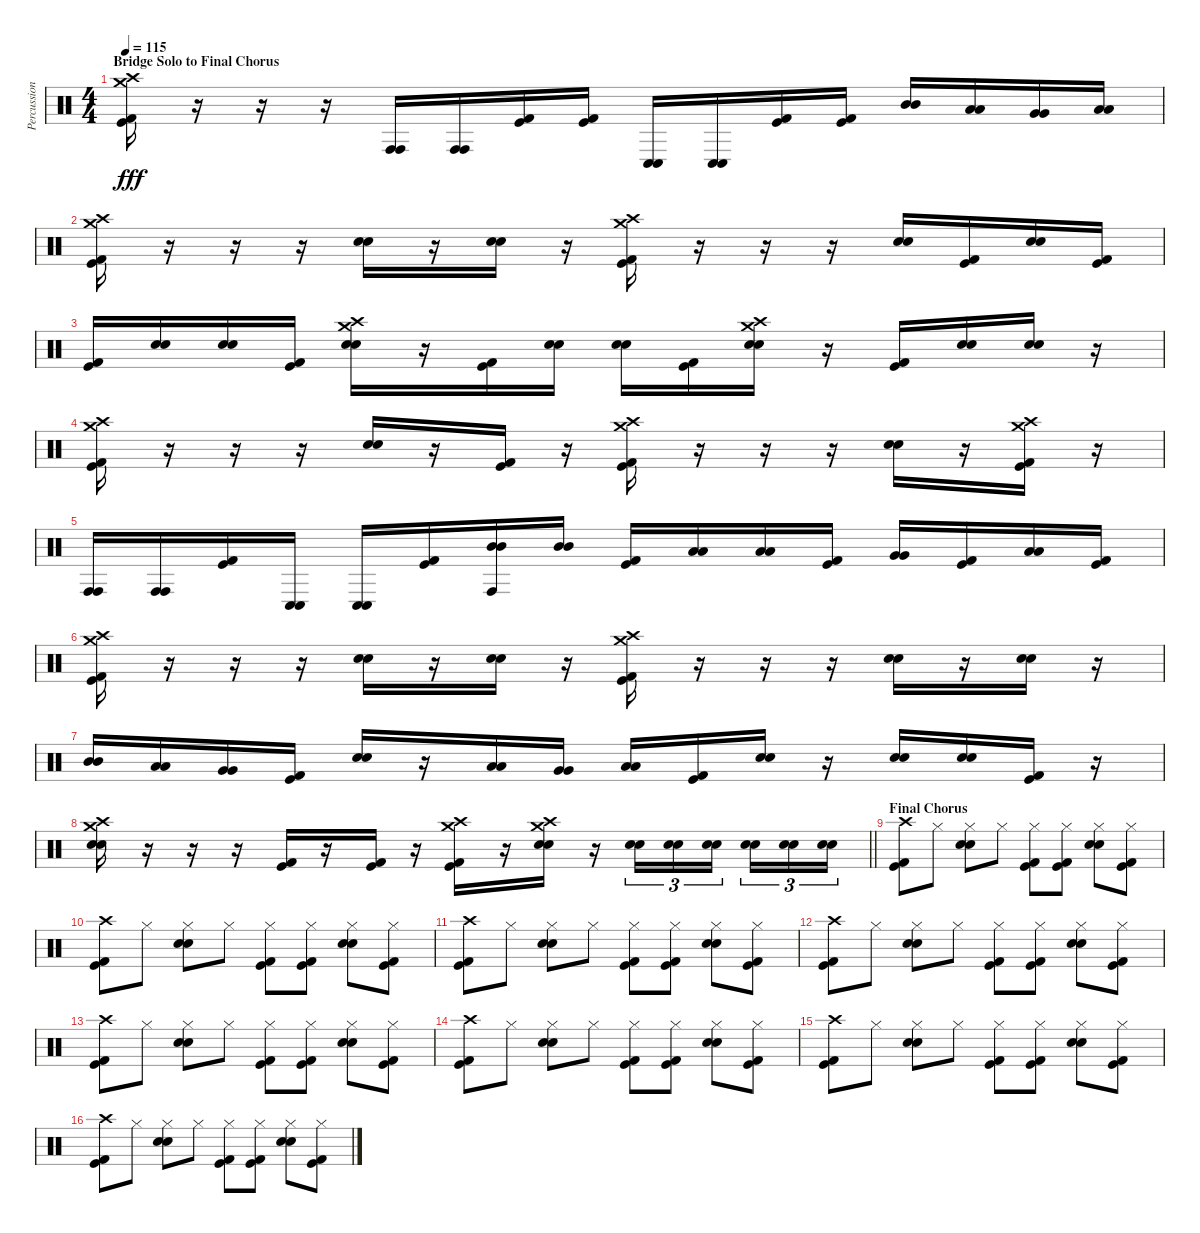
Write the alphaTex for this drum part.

\track ("Percussion" "Percussion") {instrument percussion}
\staff {score}
\articulation defaults
\ts (4 4)
\section ("" "Bridge Solo to Final Chorus")
\tempo 115
\clef neutral
\ks c
("Crash medium (hit)" "Crash high (hit)" "Kick (hit) 2" "Kick (hit)").16{dy fff} r.16 r.16 r.16 ("Conga high (hit)" "Conga high (hit)").16 ("Conga high (hit)" "Conga high (hit)").16 ("Kick (hit) 2" "Kick (hit)").16 ("Kick (hit) 2" "Kick (hit)").16 ("Conga low (hit)" "Conga low (hit)").16 ("Conga low (hit)" "Conga low (hit)").16 ("Kick (hit) 2" "Kick (hit)").16 ("Kick (hit) 2" "Kick (hit)").16 ("Mid Tom (hit)" "Mid Tom (hit)").16 ("Low Tom (hit)" "Low Tom (hit)").16 ("Very Low Tom (hit)" "Very Low Tom (hit)").16 ("Low Floor Tom (hit)" "Low Floor Tom (hit)").16 |
("Crash medium (hit)" "Crash high (hit)" "Kick (hit) 2" "Kick (hit)").16 r.16 r.16 r.16 ("Electric Snare (hit)" "Snare (hit) 2").16 r.16 ("Electric Snare (hit)" "Snare (hit) 2").16 r.16 ("Crash medium (hit)" "Crash high (hit)" "Kick (hit) 2" "Kick (hit)").16 r.16 r.16 r.16 ("Electric Snare (hit)" "Snare (hit) 2").16 ("Kick (hit) 2" "Kick (hit)").16 ("Electric Snare (hit)" "Snare (hit) 2").16 ("Kick (hit) 2" "Kick (hit)").16 |
("Kick (hit) 2" "Kick (hit)").16 ("Electric Snare (hit)" "Snare (hit) 2").16 ("Electric Snare (hit)" "Snare (hit) 2").16 ("Kick (hit) 2" "Kick (hit)").16 ("Crash medium (hit)" "Electric Snare (hit)" "Snare (hit) 2" "Crash high (hit)").16 r.16 ("Kick (hit) 2" "Kick (hit)").16 ("Electric Snare (hit)" "Snare (hit) 2").16 ("Electric Snare (hit)" "Snare (hit) 2").16 ("Kick (hit) 2" "Kick (hit)").16 ("Crash medium (hit)" "Electric Snare (hit)" "Snare (hit) 2" "Crash high (hit)").16 r.16 ("Kick (hit) 2" "Kick (hit)").16 ("Electric Snare (hit)" "Snare (hit) 2").16 ("Electric Snare (hit)" "Snare (hit) 2").16 r.16 |
("Crash medium (hit)" "Crash high (hit)" "Kick (hit) 2" "Kick (hit)").16 r.16 r.16 r.16 ("Electric Snare (hit)" "Snare (hit) 2").16 r.16 ("Kick (hit) 2" "Kick (hit)").16 r.16 ("Crash medium (hit)" "Crash high (hit)" "Kick (hit) 2" "Kick (hit)").16 r.16 r.16 r.16 ("Electric Snare (hit)" "Snare (hit) 2").16 r.16 ("Crash medium (hit)" "Crash high (hit)" "Kick (hit) 2" "Kick (hit)").16 r.16 |
("Conga high (hit)" "Conga high (hit)").16 ("Conga high (hit)" "Conga high (hit)").16 ("Kick (hit) 2" "Kick (hit)").16 ("Conga low (hit)" "Conga low (hit)").16 ("Conga low (hit)" "Conga low (hit)").16 ("Kick (hit) 2" "Kick (hit)").16 ("Conga high (hit)" "Mid Tom (hit)" "Mid Tom (hit)").16 ("Mid Tom (hit)" "Mid Tom (hit)").16 ("Kick (hit) 2" "Kick (hit)").16 ("Low Tom (hit)" "Low Tom (hit)").16 ("Low Tom (hit)" "Low Tom (hit)").16 ("Kick (hit) 2" "Kick (hit)").16 ("Very Low Tom (hit)" "Very Low Tom (hit)").16 ("Kick (hit) 2" "Kick (hit)").16 ("Low Floor Tom (hit)" "Low Floor Tom (hit)").16 ("Kick (hit) 2" "Kick (hit)").16 |
("Crash medium (hit)" "Crash high (hit)" "Kick (hit) 2" "Kick (hit)").16 r.16 r.16 r.16 ("Electric Snare (hit)" "Snare (hit) 2").16 r.16 ("Electric Snare (hit)" "Snare (hit) 2").16 r.16 ("Crash medium (hit)" "Crash high (hit)" "Kick (hit) 2" "Kick (hit)").16 r.16 r.16 r.16 ("Electric Snare (hit)" "Snare (hit) 2").16 r.16 ("Electric Snare (hit)" "Snare (hit) 2").16 r.16 |
("Mid Tom (hit)" "Mid Tom (hit)").16 ("Low Tom (hit)" "Low Tom (hit)").16 ("Very Low Tom (hit)" "Very Low Tom (hit)").16 ("Kick (hit) 2" "Kick (hit)").16 ("Electric Snare (hit)" "Snare (hit) 2").16 r.16 ("Low Tom (hit)" "Low Tom (hit)").16 ("Very Low Tom (hit)" "Very Low Tom (hit)").16 ("Low Floor Tom (hit)" "Low Floor Tom (hit)").16 ("Kick (hit) 2" "Kick (hit)").16 ("Electric Snare (hit)" "Snare (hit) 2").16 r.16 ("Electric Snare (hit)" "Snare (hit) 2").16 ("Electric Snare (hit)" "Snare (hit) 2").16 ("Kick (hit) 2" "Kick (hit)").16 r.16 |
\barLineRight lightlight
("Crash medium (hit)" "Electric Snare (hit)" "Snare (hit) 2" "Crash high (hit)").16 r.16 r.16 r.16 ("Kick (hit) 2" "Kick (hit)").16 r.16 ("Kick (hit) 2" "Kick (hit)").16 r.16 ("Crash medium (hit)" "Crash high (hit)" "Kick (hit) 2" "Kick (hit)").16 r.16 ("Crash medium (hit)" "Electric Snare (hit)" "Snare (hit) 2" "Crash high (hit)").16 r.16 ("Electric Snare (hit)" "Snare (hit) 2").16{tu (3 2)} ("Electric Snare (hit)" "Snare (hit) 2").16{tu (3 2)} ("Electric Snare (hit)" "Snare (hit) 2").16{tu (3 2) beam splitsecondary} ("Electric Snare (hit)" "Snare (hit) 2").16{tu (3 2)} ("Electric Snare (hit)" "Snare (hit) 2").16{tu (3 2)} ("Electric Snare (hit)" "Snare (hit) 2").16{tu (3 2)} |
\section ("" "Final Chorus")
("Crash high (hit)" "Kick (hit) 2" "Kick (hit)").8 "Hi-Hat (closed)".8 ("Hi-Hat (closed)" "Electric Snare (hit)" "Snare (hit) 2").8 "Hi-Hat (closed)".8 ("Hi-Hat (closed)" "Kick (hit) 2" "Kick (hit)").8 ("Hi-Hat (closed)" "Kick (hit) 2" "Kick (hit)").8 ("Hi-Hat (closed)" "Electric Snare (hit)" "Snare (hit) 2").8 ("Hi-Hat (closed)" "Kick (hit) 2" "Kick (hit)").8 |
("Crash high (hit)" "Kick (hit) 2" "Kick (hit)").8 "Hi-Hat (closed)".8 ("Hi-Hat (closed)" "Electric Snare (hit)" "Snare (hit) 2").8 "Hi-Hat (closed)".8 ("Hi-Hat (closed)" "Kick (hit) 2" "Kick (hit)").8 ("Hi-Hat (closed)" "Kick (hit) 2" "Kick (hit)").8 ("Hi-Hat (closed)" "Electric Snare (hit)" "Snare (hit) 2").8 ("Hi-Hat (closed)" "Kick (hit) 2" "Kick (hit)").8 |
("Crash high (hit)" "Kick (hit) 2" "Kick (hit)").8 "Hi-Hat (closed)".8 ("Hi-Hat (closed)" "Electric Snare (hit)" "Snare (hit) 2").8 "Hi-Hat (closed)".8 ("Hi-Hat (closed)" "Kick (hit) 2" "Kick (hit)").8 ("Hi-Hat (closed)" "Kick (hit) 2" "Kick (hit)").8 ("Hi-Hat (closed)" "Electric Snare (hit)" "Snare (hit) 2").8 ("Hi-Hat (closed)" "Kick (hit) 2" "Kick (hit)").8 |
("Crash high (hit)" "Kick (hit) 2" "Kick (hit)").8 "Hi-Hat (closed)".8 ("Hi-Hat (closed)" "Electric Snare (hit)" "Snare (hit) 2").8 "Hi-Hat (closed)".8 ("Hi-Hat (closed)" "Kick (hit) 2" "Kick (hit)").8 ("Hi-Hat (closed)" "Kick (hit) 2" "Kick (hit)").8 ("Hi-Hat (closed)" "Electric Snare (hit)" "Snare (hit) 2").8 ("Hi-Hat (closed)" "Kick (hit) 2" "Kick (hit)").8 |
("Crash high (hit)" "Kick (hit) 2" "Kick (hit)").8 "Hi-Hat (closed)".8 ("Hi-Hat (closed)" "Electric Snare (hit)" "Snare (hit) 2").8 "Hi-Hat (closed)".8 ("Hi-Hat (closed)" "Kick (hit) 2" "Kick (hit)").8 ("Hi-Hat (closed)" "Kick (hit) 2" "Kick (hit)").8 ("Hi-Hat (closed)" "Electric Snare (hit)" "Snare (hit) 2").8 ("Hi-Hat (closed)" "Kick (hit) 2" "Kick (hit)").8 |
("Crash high (hit)" "Kick (hit) 2" "Kick (hit)").8 "Hi-Hat (closed)".8 ("Hi-Hat (closed)" "Electric Snare (hit)" "Snare (hit) 2").8 "Hi-Hat (closed)".8 ("Hi-Hat (closed)" "Kick (hit) 2" "Kick (hit)").8 ("Hi-Hat (closed)" "Kick (hit) 2" "Kick (hit)").8 ("Hi-Hat (closed)" "Electric Snare (hit)" "Snare (hit) 2").8 ("Hi-Hat (closed)" "Kick (hit) 2" "Kick (hit)").8 |
("Crash high (hit)" "Kick (hit) 2" "Kick (hit)").8 "Hi-Hat (closed)".8 ("Hi-Hat (closed)" "Electric Snare (hit)" "Snare (hit) 2").8 "Hi-Hat (closed)".8 ("Hi-Hat (closed)" "Kick (hit) 2" "Kick (hit)").8 ("Hi-Hat (closed)" "Kick (hit) 2" "Kick (hit)").8 ("Hi-Hat (closed)" "Electric Snare (hit)" "Snare (hit) 2").8 ("Hi-Hat (closed)" "Kick (hit) 2" "Kick (hit)").8 |
("Crash high (hit)" "Kick (hit) 2" "Kick (hit)").8 "Hi-Hat (closed)".8 ("Hi-Hat (closed)" "Electric Snare (hit)" "Snare (hit) 2").8 "Hi-Hat (closed)".8 ("Hi-Hat (closed)" "Kick (hit) 2" "Kick (hit)").8 ("Hi-Hat (closed)" "Kick (hit) 2" "Kick (hit)").8 ("Hi-Hat (closed)" "Electric Snare (hit)" "Snare (hit) 2").8 ("Hi-Hat (closed)" "Kick (hit) 2" "Kick (hit)").8
